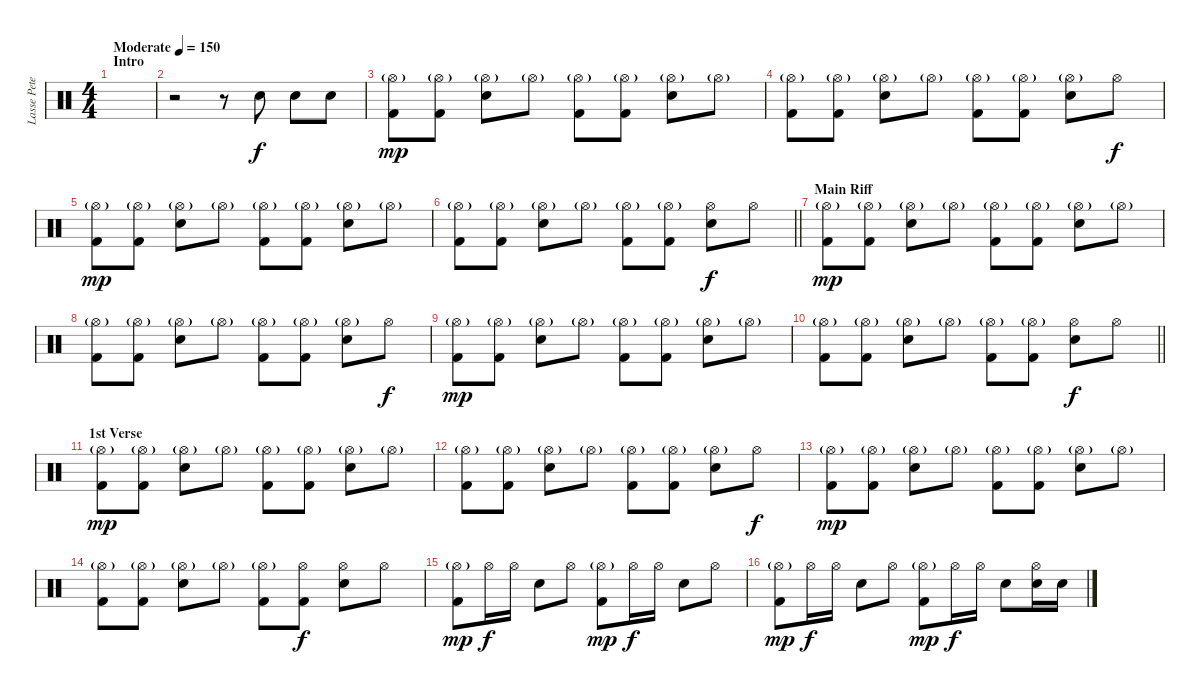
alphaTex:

\track ("Lasse Peterson" "Lasse Pete") {instrument percussion}
\staff {score}
\articulation defaults
\ts (4 4)
\section ("" "Intro")
\tempo (150 "Moderate")
\clef neutral
\ks c
|
r.2 r.8 "Electric Snare (hit)".8 "Electric Snare (hit)".8 "Electric Snare (hit)".8 |
("Kick (hit) 2" "Hi-Hat (open)"{g}).8{dy mp} ("Kick (hit) 2" "Hi-Hat (open)"{g}).8 ("Electric Snare (hit)" "Hi-Hat (open)"{g}).8 "Hi-Hat (open)"{g}.8 ("Kick (hit) 2" "Hi-Hat (open)"{g}).8 ("Kick (hit) 2" "Hi-Hat (open)"{g}).8 ("Electric Snare (hit)" "Hi-Hat (open)"{g}).8 "Hi-Hat (open)"{g}.8 |
("Kick (hit) 2" "Hi-Hat (open)"{g}).8 ("Kick (hit) 2" "Hi-Hat (open)"{g}).8 ("Electric Snare (hit)" "Hi-Hat (open)"{g}).8 "Hi-Hat (open)"{g}.8 ("Kick (hit) 2" "Hi-Hat (open)"{g}).8 ("Kick (hit) 2" "Hi-Hat (open)"{g}).8 ("Electric Snare (hit)" "Hi-Hat (open)"{g}).8 "Hi-Hat (open)".8{dy f} |
("Kick (hit) 2" "Hi-Hat (open)"{g}).8{dy mp} ("Kick (hit) 2" "Hi-Hat (open)"{g}).8 ("Electric Snare (hit)" "Hi-Hat (open)"{g}).8 "Hi-Hat (open)"{g}.8 ("Kick (hit) 2" "Hi-Hat (open)"{g}).8 ("Kick (hit) 2" "Hi-Hat (open)"{g}).8 ("Electric Snare (hit)" "Hi-Hat (open)"{g}).8 "Hi-Hat (open)"{g}.8 |
\barLineRight lightlight
("Kick (hit) 2" "Hi-Hat (open)"{g}).8 ("Kick (hit) 2" "Hi-Hat (open)"{g}).8 ("Electric Snare (hit)" "Hi-Hat (open)"{g}).8 "Hi-Hat (open)"{g}.8 ("Kick (hit) 2" "Hi-Hat (open)"{g}).8 ("Kick (hit) 2" "Hi-Hat (open)"{g}).8 ("Electric Snare (hit)" "Hi-Hat (open)").8{dy f} "Hi-Hat (open)".8 |
\section ("" "Main Riff")
("Kick (hit) 2" "Hi-Hat (open)"{g}).8{dy mp} ("Kick (hit) 2" "Hi-Hat (open)"{g}).8 ("Electric Snare (hit)" "Hi-Hat (open)"{g}).8 "Hi-Hat (open)"{g}.8 ("Kick (hit) 2" "Hi-Hat (open)"{g}).8 ("Kick (hit) 2" "Hi-Hat (open)"{g}).8 ("Electric Snare (hit)" "Hi-Hat (open)"{g}).8 "Hi-Hat (open)"{g}.8 |
("Kick (hit) 2" "Hi-Hat (open)"{g}).8 ("Kick (hit) 2" "Hi-Hat (open)"{g}).8 ("Electric Snare (hit)" "Hi-Hat (open)"{g}).8 "Hi-Hat (open)"{g}.8 ("Kick (hit) 2" "Hi-Hat (open)"{g}).8 ("Kick (hit) 2" "Hi-Hat (open)"{g}).8 ("Electric Snare (hit)" "Hi-Hat (open)"{g}).8 "Hi-Hat (open)".8{dy f} |
("Kick (hit) 2" "Hi-Hat (open)"{g}).8{dy mp} ("Kick (hit) 2" "Hi-Hat (open)"{g}).8 ("Electric Snare (hit)" "Hi-Hat (open)"{g}).8 "Hi-Hat (open)"{g}.8 ("Kick (hit) 2" "Hi-Hat (open)"{g}).8 ("Kick (hit) 2" "Hi-Hat (open)"{g}).8 ("Electric Snare (hit)" "Hi-Hat (open)"{g}).8 "Hi-Hat (open)"{g}.8 |
\barLineRight lightlight
("Kick (hit) 2" "Hi-Hat (open)"{g}).8 ("Kick (hit) 2" "Hi-Hat (open)"{g}).8 ("Electric Snare (hit)" "Hi-Hat (open)"{g}).8 "Hi-Hat (open)"{g}.8 ("Kick (hit) 2" "Hi-Hat (open)"{g}).8 ("Kick (hit) 2" "Hi-Hat (open)"{g}).8 ("Electric Snare (hit)" "Hi-Hat (open)").8{dy f} "Hi-Hat (open)".8 |
\section ("" "1st Verse")
("Kick (hit) 2" "Hi-Hat (open)"{g}).8{dy mp} ("Kick (hit) 2" "Hi-Hat (open)"{g}).8 ("Electric Snare (hit)" "Hi-Hat (open)"{g}).8 "Hi-Hat (open)"{g}.8 ("Kick (hit) 2" "Hi-Hat (open)"{g}).8 ("Kick (hit) 2" "Hi-Hat (open)"{g}).8 ("Electric Snare (hit)" "Hi-Hat (open)"{g}).8 "Hi-Hat (open)"{g}.8 |
("Kick (hit) 2" "Hi-Hat (open)"{g}).8 ("Kick (hit) 2" "Hi-Hat (open)"{g}).8 ("Electric Snare (hit)" "Hi-Hat (open)"{g}).8 "Hi-Hat (open)"{g}.8 ("Kick (hit) 2" "Hi-Hat (open)"{g}).8 ("Kick (hit) 2" "Hi-Hat (open)"{g}).8 ("Electric Snare (hit)" "Hi-Hat (open)"{g}).8 "Hi-Hat (open)".8{dy f} |
("Kick (hit) 2" "Hi-Hat (open)"{g}).8{dy mp} ("Kick (hit) 2" "Hi-Hat (open)"{g}).8 ("Electric Snare (hit)" "Hi-Hat (open)"{g}).8 "Hi-Hat (open)"{g}.8 ("Kick (hit) 2" "Hi-Hat (open)"{g}).8 ("Kick (hit) 2" "Hi-Hat (open)"{g}).8 ("Electric Snare (hit)" "Hi-Hat (open)"{g}).8 "Hi-Hat (open)"{g}.8 |
("Kick (hit) 2" "Hi-Hat (open)"{g}).8 ("Kick (hit) 2" "Hi-Hat (open)"{g}).8 ("Electric Snare (hit)" "Hi-Hat (open)"{g}).8 "Hi-Hat (open)"{g}.8 ("Kick (hit) 2" "Hi-Hat (open)"{g}).8 ("Kick (hit) 2" "Hi-Hat (open)").8{dy f} ("Electric Snare (hit)" "Hi-Hat (open)").8 "Hi-Hat (open)".8 |
("Kick (hit) 2" "Hi-Hat (open)"{g}).8{dy mp} "Hi-Hat (open)".16{dy f} "Hi-Hat (open)".16 "Electric Snare (hit)".8 "Hi-Hat (open)".8 ("Kick (hit) 2" "Hi-Hat (open)"{g}).8{dy mp} "Hi-Hat (open)".16{dy f} "Hi-Hat (open)".16 "Electric Snare (hit)".8 "Hi-Hat (open)".8 |
("Kick (hit) 2" "Hi-Hat (open)"{g}).8{dy mp} "Hi-Hat (open)".16{dy f} "Hi-Hat (open)".16 "Electric Snare (hit)".8 "Hi-Hat (open)".8 ("Kick (hit) 2" "Hi-Hat (open)"{g}).8{dy mp} "Hi-Hat (open)".16{dy f} "Hi-Hat (open)".16 "Electric Snare (hit)".8 ("Electric Snare (hit)" "Hi-Hat (open)").16 "Electric Snare (hit)".16
